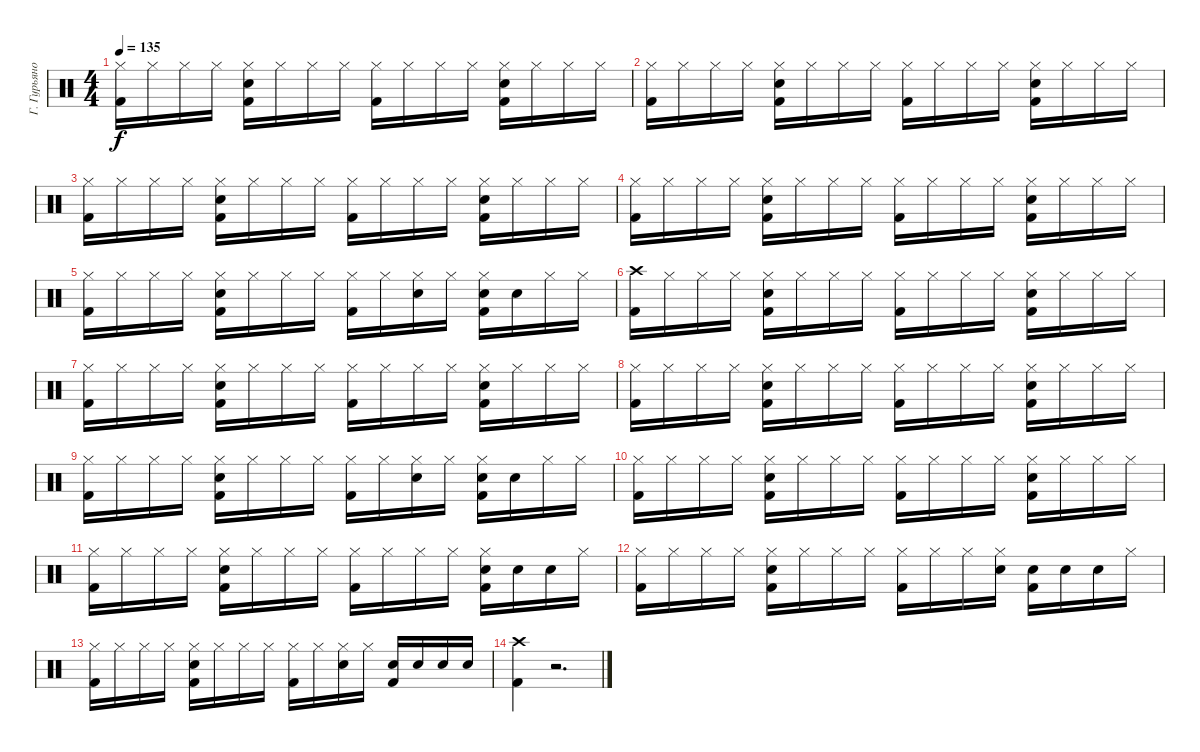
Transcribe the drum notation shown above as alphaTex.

\track ("Г. Гурьянов" "Г. Гурьяно") {instrument percussion}
\staff {score}
\articulation defaults
\ts (4 4)
\tempo 135
\clef neutral
\ks c
("Hi-Hat (closed)" "Kick (hit) 2").16{dy f} "Hi-Hat (closed)".16 "Hi-Hat (closed)".16 "Hi-Hat (closed)".16 ("Hi-Hat (closed)" "Electric Snare (hit)" "Kick (hit) 2").16 "Hi-Hat (closed)".16 "Hi-Hat (closed)".16 "Hi-Hat (closed)".16 ("Hi-Hat (closed)" "Kick (hit) 2").16 "Hi-Hat (closed)".16 "Hi-Hat (closed)".16 "Hi-Hat (closed)".16 ("Hi-Hat (closed)" "Electric Snare (hit)" "Kick (hit) 2").16 "Hi-Hat (closed)".16 "Hi-Hat (closed)".16 "Hi-Hat (closed)".16 |
("Hi-Hat (closed)" "Kick (hit) 2").16 "Hi-Hat (closed)".16 "Hi-Hat (closed)".16 "Hi-Hat (closed)".16 ("Hi-Hat (closed)" "Electric Snare (hit)" "Kick (hit) 2").16 "Hi-Hat (closed)".16 "Hi-Hat (closed)".16 "Hi-Hat (closed)".16 ("Hi-Hat (closed)" "Kick (hit) 2").16 "Hi-Hat (closed)".16 "Hi-Hat (closed)".16 "Hi-Hat (closed)".16 ("Hi-Hat (closed)" "Electric Snare (hit)" "Kick (hit) 2").16 "Hi-Hat (closed)".16 "Hi-Hat (closed)".16 "Hi-Hat (closed)".16 |
("Hi-Hat (closed)" "Kick (hit) 2").16 "Hi-Hat (closed)".16 "Hi-Hat (closed)".16 "Hi-Hat (closed)".16 ("Hi-Hat (closed)" "Electric Snare (hit)" "Kick (hit) 2").16 "Hi-Hat (closed)".16 "Hi-Hat (closed)".16 "Hi-Hat (closed)".16 ("Hi-Hat (closed)" "Kick (hit) 2").16 "Hi-Hat (closed)".16 "Hi-Hat (closed)".16 "Hi-Hat (closed)".16 ("Hi-Hat (closed)" "Electric Snare (hit)" "Kick (hit) 2").16 "Hi-Hat (closed)".16 "Hi-Hat (closed)".16 "Hi-Hat (closed)".16 |
("Hi-Hat (closed)" "Kick (hit) 2").16 "Hi-Hat (closed)".16 "Hi-Hat (closed)".16 "Hi-Hat (closed)".16 ("Hi-Hat (closed)" "Electric Snare (hit)" "Kick (hit) 2").16 "Hi-Hat (closed)".16 "Hi-Hat (closed)".16 "Hi-Hat (closed)".16 ("Hi-Hat (closed)" "Kick (hit) 2").16 "Hi-Hat (closed)".16 "Hi-Hat (closed)".16 "Hi-Hat (closed)".16 ("Hi-Hat (closed)" "Electric Snare (hit)" "Kick (hit) 2").16 "Hi-Hat (closed)".16 "Hi-Hat (closed)".16 "Hi-Hat (closed)".16 |
("Hi-Hat (closed)" "Kick (hit) 2").16 "Hi-Hat (closed)".16 "Hi-Hat (closed)".16 "Hi-Hat (closed)".16 ("Hi-Hat (closed)" "Electric Snare (hit)" "Kick (hit) 2").16 "Hi-Hat (closed)".16 "Hi-Hat (closed)".16 "Hi-Hat (closed)".16 ("Hi-Hat (closed)" "Kick (hit) 2").16 "Hi-Hat (closed)".16 ("Hi-Hat (closed)" "Electric Snare (hit)").16 "Hi-Hat (closed)".16 ("Hi-Hat (closed)" "Electric Snare (hit)" "Kick (hit) 2").16 "Electric Snare (hit)".16 "Hi-Hat (closed)".16 "Hi-Hat (closed)".16 |
("Crash high (hit)" "Kick (hit) 2").16 "Hi-Hat (closed)".16 "Hi-Hat (closed)".16 "Hi-Hat (closed)".16 ("Hi-Hat (closed)" "Electric Snare (hit)" "Kick (hit) 2").16 "Hi-Hat (closed)".16 "Hi-Hat (closed)".16 "Hi-Hat (closed)".16 ("Hi-Hat (closed)" "Kick (hit) 2").16 "Hi-Hat (closed)".16 "Hi-Hat (closed)".16 "Hi-Hat (closed)".16 ("Hi-Hat (closed)" "Electric Snare (hit)" "Kick (hit) 2").16 "Hi-Hat (closed)".16 "Hi-Hat (closed)".16 "Hi-Hat (closed)".16 |
("Hi-Hat (closed)" "Kick (hit) 2").16 "Hi-Hat (closed)".16 "Hi-Hat (closed)".16 "Hi-Hat (closed)".16 ("Hi-Hat (closed)" "Electric Snare (hit)" "Kick (hit) 2").16 "Hi-Hat (closed)".16 "Hi-Hat (closed)".16 "Hi-Hat (closed)".16 ("Hi-Hat (closed)" "Kick (hit) 2").16 "Hi-Hat (closed)".16 "Hi-Hat (closed)".16 "Hi-Hat (closed)".16 ("Hi-Hat (closed)" "Electric Snare (hit)" "Kick (hit) 2").16 "Hi-Hat (closed)".16 "Hi-Hat (closed)".16 "Hi-Hat (closed)".16 |
("Hi-Hat (closed)" "Kick (hit) 2").16 "Hi-Hat (closed)".16 "Hi-Hat (closed)".16 "Hi-Hat (closed)".16 ("Hi-Hat (closed)" "Electric Snare (hit)" "Kick (hit) 2").16 "Hi-Hat (closed)".16 "Hi-Hat (closed)".16 "Hi-Hat (closed)".16 ("Hi-Hat (closed)" "Kick (hit) 2").16 "Hi-Hat (closed)".16 "Hi-Hat (closed)".16 "Hi-Hat (closed)".16 ("Hi-Hat (closed)" "Electric Snare (hit)" "Kick (hit) 2").16 "Hi-Hat (closed)".16 "Hi-Hat (closed)".16 "Hi-Hat (closed)".16 |
("Hi-Hat (closed)" "Kick (hit) 2").16 "Hi-Hat (closed)".16 "Hi-Hat (closed)".16 "Hi-Hat (closed)".16 ("Hi-Hat (closed)" "Electric Snare (hit)" "Kick (hit) 2").16 "Hi-Hat (closed)".16 "Hi-Hat (closed)".16 "Hi-Hat (closed)".16 ("Hi-Hat (closed)" "Kick (hit) 2").16 "Hi-Hat (closed)".16 ("Hi-Hat (closed)" "Electric Snare (hit)").16 "Hi-Hat (closed)".16 ("Hi-Hat (closed)" "Electric Snare (hit)" "Kick (hit) 2").16 "Electric Snare (hit)".16 "Hi-Hat (closed)".16 "Hi-Hat (closed)".16 |
("Hi-Hat (closed)" "Kick (hit) 2").16 "Hi-Hat (closed)".16 "Hi-Hat (closed)".16 "Hi-Hat (closed)".16 ("Hi-Hat (closed)" "Electric Snare (hit)" "Kick (hit) 2").16 "Hi-Hat (closed)".16 "Hi-Hat (closed)".16 "Hi-Hat (closed)".16 ("Hi-Hat (closed)" "Kick (hit) 2").16 "Hi-Hat (closed)".16 "Hi-Hat (closed)".16 "Hi-Hat (closed)".16 ("Hi-Hat (closed)" "Electric Snare (hit)" "Kick (hit) 2").16 "Hi-Hat (closed)".16 "Hi-Hat (closed)".16 "Hi-Hat (closed)".16 |
("Hi-Hat (closed)" "Kick (hit) 2").16 "Hi-Hat (closed)".16 "Hi-Hat (closed)".16 "Hi-Hat (closed)".16 ("Hi-Hat (closed)" "Electric Snare (hit)" "Kick (hit) 2").16 "Hi-Hat (closed)".16 "Hi-Hat (closed)".16 "Hi-Hat (closed)".16 ("Hi-Hat (closed)" "Kick (hit) 2").16 "Hi-Hat (closed)".16 "Hi-Hat (closed)".16 "Hi-Hat (closed)".16 ("Hi-Hat (closed)" "Electric Snare (hit)" "Kick (hit) 2").16 "Electric Snare (hit)".16 "Electric Snare (hit)".16 "Hi-Hat (closed)".16 |
("Hi-Hat (closed)" "Kick (hit) 2").16 "Hi-Hat (closed)".16 "Hi-Hat (closed)".16 "Hi-Hat (closed)".16 ("Hi-Hat (closed)" "Electric Snare (hit)" "Kick (hit) 2").16 "Hi-Hat (closed)".16 "Hi-Hat (closed)".16 "Hi-Hat (closed)".16 ("Hi-Hat (closed)" "Kick (hit) 2").16 "Hi-Hat (closed)".16 "Hi-Hat (closed)".16 ("Hi-Hat (closed)" "Electric Snare (hit)").16 ("Electric Snare (hit)" "Kick (hit) 2").16 "Electric Snare (hit)".16 "Electric Snare (hit)".16 "Hi-Hat (closed)".16 |
("Hi-Hat (closed)" "Kick (hit) 2").16 "Hi-Hat (closed)".16 "Hi-Hat (closed)".16 "Hi-Hat (closed)".16 ("Hi-Hat (closed)" "Electric Snare (hit)" "Kick (hit) 2").16 "Hi-Hat (closed)".16 "Hi-Hat (closed)".16 "Hi-Hat (closed)".16 ("Hi-Hat (closed)" "Kick (hit) 2").16 "Hi-Hat (closed)".16 ("Hi-Hat (closed)" "Electric Snare (hit)").16 "Hi-Hat (closed)".16 ("Electric Snare (hit)" "Kick (hit) 2").16 "Electric Snare (hit)".16 "Electric Snare (hit)".16 "Electric Snare (hit)".16 |
("Crash high (hit)" "Kick (hit) 2").4 r.2{d}
